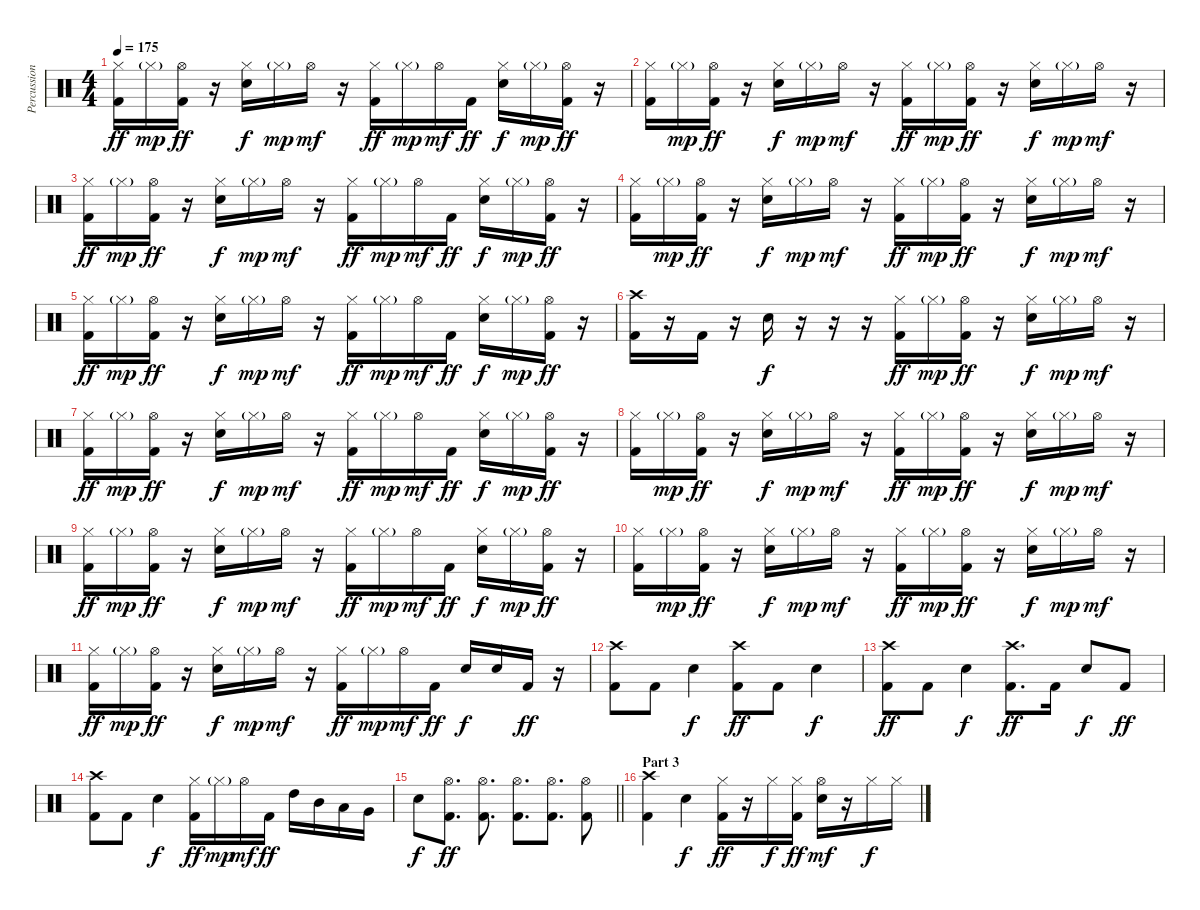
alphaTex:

\track ("Percussion" "Percussion") {instrument percussion}
\staff {score}
\articulation defaults
\ts (4 4)
\tempo 175
\clef neutral
\ks c
("Hi-Hat (closed)" "Kick (hit) 2").16{dy ff} "Hi-Hat (closed)"{g}.16{dy mp} ("Hi-Hat (open)" "Kick (hit) 2").16{dy ff} r.16 ("Hi-Hat (closed)" "Electric Snare (hit)").16{dy f} "Hi-Hat (closed)"{g}.16{dy mp} "Hi-Hat (open)".16{dy mf} r.16 ("Hi-Hat (closed)" "Kick (hit) 2").16{dy ff} "Hi-Hat (closed)"{g}.16{dy mp} "Hi-Hat (open)".16{dy mf} "Kick (hit) 2".16{dy ff} ("Hi-Hat (closed)" "Electric Snare (hit)").16{dy f} "Hi-Hat (closed)"{g}.16{dy mp} ("Hi-Hat (open)" "Kick (hit) 2").16{dy ff} r.16 |
("Hi-Hat (closed)" "Kick (hit) 2").16 "Hi-Hat (closed)"{g}.16{dy mp} ("Hi-Hat (open)" "Kick (hit) 2").16{dy ff} r.16 ("Hi-Hat (closed)" "Electric Snare (hit)").16{dy f} "Hi-Hat (closed)"{g}.16{dy mp} "Hi-Hat (open)".16{dy mf} r.16 ("Hi-Hat (closed)" "Kick (hit) 2").16{dy ff} "Hi-Hat (closed)"{g}.16{dy mp} ("Hi-Hat (open)" "Kick (hit) 2").16{dy ff} r.16 ("Hi-Hat (closed)" "Electric Snare (hit)").16{dy f} "Hi-Hat (closed)"{g}.16{dy mp} "Hi-Hat (open)".16{dy mf} r.16 |
("Hi-Hat (closed)" "Kick (hit) 2").16{dy ff} "Hi-Hat (closed)"{g}.16{dy mp} ("Hi-Hat (open)" "Kick (hit) 2").16{dy ff} r.16 ("Hi-Hat (closed)" "Electric Snare (hit)").16{dy f} "Hi-Hat (closed)"{g}.16{dy mp} "Hi-Hat (open)".16{dy mf} r.16 ("Hi-Hat (closed)" "Kick (hit) 2").16{dy ff} "Hi-Hat (closed)"{g}.16{dy mp} "Hi-Hat (open)".16{dy mf} "Kick (hit) 2".16{dy ff} ("Hi-Hat (closed)" "Electric Snare (hit)").16{dy f} "Hi-Hat (closed)"{g}.16{dy mp} ("Hi-Hat (open)" "Kick (hit) 2").16{dy ff} r.16 |
("Hi-Hat (closed)" "Kick (hit) 2").16 "Hi-Hat (closed)"{g}.16{dy mp} ("Hi-Hat (open)" "Kick (hit) 2").16{dy ff} r.16 ("Hi-Hat (closed)" "Electric Snare (hit)").16{dy f} "Hi-Hat (closed)"{g}.16{dy mp} "Hi-Hat (open)".16{dy mf} r.16 ("Hi-Hat (closed)" "Kick (hit) 2").16{dy ff} "Hi-Hat (closed)"{g}.16{dy mp} ("Hi-Hat (open)" "Kick (hit) 2").16{dy ff} r.16 ("Hi-Hat (closed)" "Electric Snare (hit)").16{dy f} "Hi-Hat (closed)"{g}.16{dy mp} "Hi-Hat (open)".16{dy mf} r.16 |
("Hi-Hat (closed)" "Kick (hit) 2").16{dy ff} "Hi-Hat (closed)"{g}.16{dy mp} ("Hi-Hat (open)" "Kick (hit) 2").16{dy ff} r.16 ("Hi-Hat (closed)" "Electric Snare (hit)").16{dy f} "Hi-Hat (closed)"{g}.16{dy mp} "Hi-Hat (open)".16{dy mf} r.16 ("Hi-Hat (closed)" "Kick (hit) 2").16{dy ff} "Hi-Hat (closed)"{g}.16{dy mp} "Hi-Hat (open)".16{dy mf} "Kick (hit) 2".16{dy ff} ("Hi-Hat (closed)" "Electric Snare (hit)").16{dy f} "Hi-Hat (closed)"{g}.16{dy mp} ("Hi-Hat (open)" "Kick (hit) 2").16{dy ff} r.16 |
("Crash high (hit)" "Kick (hit) 2").16 r.16 "Kick (hit) 2".16 r.16 "Electric Snare (hit)".16{dy f} r.16 r.16 r.16 ("Hi-Hat (closed)" "Kick (hit) 2").16{dy ff} "Hi-Hat (closed)"{g}.16{dy mp} ("Hi-Hat (open)" "Kick (hit) 2").16{dy ff} r.16 ("Hi-Hat (closed)" "Electric Snare (hit)").16{dy f} "Hi-Hat (closed)"{g}.16{dy mp} "Hi-Hat (open)".16{dy mf} r.16 |
("Hi-Hat (closed)" "Kick (hit) 2").16{dy ff} "Hi-Hat (closed)"{g}.16{dy mp} ("Hi-Hat (open)" "Kick (hit) 2").16{dy ff} r.16 ("Hi-Hat (closed)" "Electric Snare (hit)").16{dy f} "Hi-Hat (closed)"{g}.16{dy mp} "Hi-Hat (open)".16{dy mf} r.16 ("Hi-Hat (closed)" "Kick (hit) 2").16{dy ff} "Hi-Hat (closed)"{g}.16{dy mp} "Hi-Hat (open)".16{dy mf} "Kick (hit) 2".16{dy ff} ("Hi-Hat (closed)" "Electric Snare (hit)").16{dy f} "Hi-Hat (closed)"{g}.16{dy mp} ("Hi-Hat (open)" "Kick (hit) 2").16{dy ff} r.16 |
("Hi-Hat (closed)" "Kick (hit) 2").16 "Hi-Hat (closed)"{g}.16{dy mp} ("Hi-Hat (open)" "Kick (hit) 2").16{dy ff} r.16 ("Hi-Hat (closed)" "Electric Snare (hit)").16{dy f} "Hi-Hat (closed)"{g}.16{dy mp} "Hi-Hat (open)".16{dy mf} r.16 ("Hi-Hat (closed)" "Kick (hit) 2").16{dy ff} "Hi-Hat (closed)"{g}.16{dy mp} ("Hi-Hat (open)" "Kick (hit) 2").16{dy ff} r.16 ("Hi-Hat (closed)" "Electric Snare (hit)").16{dy f} "Hi-Hat (closed)"{g}.16{dy mp} "Hi-Hat (open)".16{dy mf} r.16 |
("Hi-Hat (closed)" "Kick (hit) 2").16{dy ff} "Hi-Hat (closed)"{g}.16{dy mp} ("Hi-Hat (open)" "Kick (hit) 2").16{dy ff} r.16 ("Hi-Hat (closed)" "Electric Snare (hit)").16{dy f} "Hi-Hat (closed)"{g}.16{dy mp} "Hi-Hat (open)".16{dy mf} r.16 ("Hi-Hat (closed)" "Kick (hit) 2").16{dy ff} "Hi-Hat (closed)"{g}.16{dy mp} "Hi-Hat (open)".16{dy mf} "Kick (hit) 2".16{dy ff} ("Hi-Hat (closed)" "Electric Snare (hit)").16{dy f} "Hi-Hat (closed)"{g}.16{dy mp} ("Hi-Hat (open)" "Kick (hit) 2").16{dy ff} r.16 |
("Hi-Hat (closed)" "Kick (hit) 2").16 "Hi-Hat (closed)"{g}.16{dy mp} ("Hi-Hat (open)" "Kick (hit) 2").16{dy ff} r.16 ("Hi-Hat (closed)" "Electric Snare (hit)").16{dy f} "Hi-Hat (closed)"{g}.16{dy mp} "Hi-Hat (open)".16{dy mf} r.16 ("Hi-Hat (closed)" "Kick (hit) 2").16{dy ff} "Hi-Hat (closed)"{g}.16{dy mp} ("Hi-Hat (open)" "Kick (hit) 2").16{dy ff} r.16 ("Hi-Hat (closed)" "Electric Snare (hit)").16{dy f} "Hi-Hat (closed)"{g}.16{dy mp} "Hi-Hat (open)".16{dy mf} r.16 |
("Hi-Hat (closed)" "Kick (hit) 2").16{dy ff} "Hi-Hat (closed)"{g}.16{dy mp} ("Hi-Hat (open)" "Kick (hit) 2").16{dy ff} r.16 ("Hi-Hat (closed)" "Electric Snare (hit)").16{dy f} "Hi-Hat (closed)"{g}.16{dy mp} "Hi-Hat (open)".16{dy mf} r.16 ("Hi-Hat (closed)" "Kick (hit) 2").16{dy ff} "Hi-Hat (closed)"{g}.16{dy mp} "Hi-Hat (open)".16{dy mf} "Kick (hit) 2".16{dy ff} "Electric Snare (hit)".16{dy f} "Electric Snare (hit)".16 "Kick (hit) 2".16{dy ff} r.16 |
("Crash high (hit)" "Kick (hit) 2").8 "Kick (hit) 2".8 "Electric Snare (hit)".4{dy f} ("Crash high (hit)" "Kick (hit) 2").8{dy ff} "Kick (hit) 2".8 "Electric Snare (hit)".4{dy f} |
("Crash high (hit)" "Kick (hit) 2").8{dy ff} "Kick (hit) 2".8 "Electric Snare (hit)".4{dy f} ("Crash high (hit)" "Kick (hit) 2").8{d dy ff} "Kick (hit) 2".16 "Electric Snare (hit)".8{dy f} "Kick (hit) 2".8{dy ff} |
("Crash high (hit)" "Kick (hit) 2").8 "Kick (hit) 2".8 "Electric Snare (hit)".4{dy f} ("Hi-Hat (closed)" "Kick (hit) 2").16{dy ff} "Hi-Hat (closed)"{g}.16{dy mp} "Hi-Hat (open)".16{dy mf} "Kick (hit) 2".16{dy ff} "High Tom (hit)".16 "Mid Tom (hit)".16 "Low Tom (hit)".16 "Very Low Tom (hit)".16 |
\barLineRight lightlight "Electric Snare (hit)".8{dy f}
("Hi-Hat (open)" "Kick (hit) 2").8{d dy ff} ("Hi-Hat (open)" "Kick (hit) 2").8{d} ("Hi-Hat (open)" "Kick (hit) 2").8{d} ("Hi-Hat (open)" "Kick (hit) 2").8{d} ("Hi-Hat (open)" "Kick (hit) 2").8 |
\section ("" "Part 3")
("Crash high (hit)" "Kick (hit) 2").4 "Electric Snare (hit)".4{dy f} ("Hi-Hat (closed)" "Kick (hit) 2").16{dy ff} r.16 "Hi-Hat (closed)".16{dy f} ("Hi-Hat (closed)" "Kick (hit) 2").16{dy ff} ("Hi-Hat (open)" "Electric Snare (hit)").16{dy mf} r.16 "Hi-Hat (closed)".16{dy f} "Hi-Hat (closed)".16
